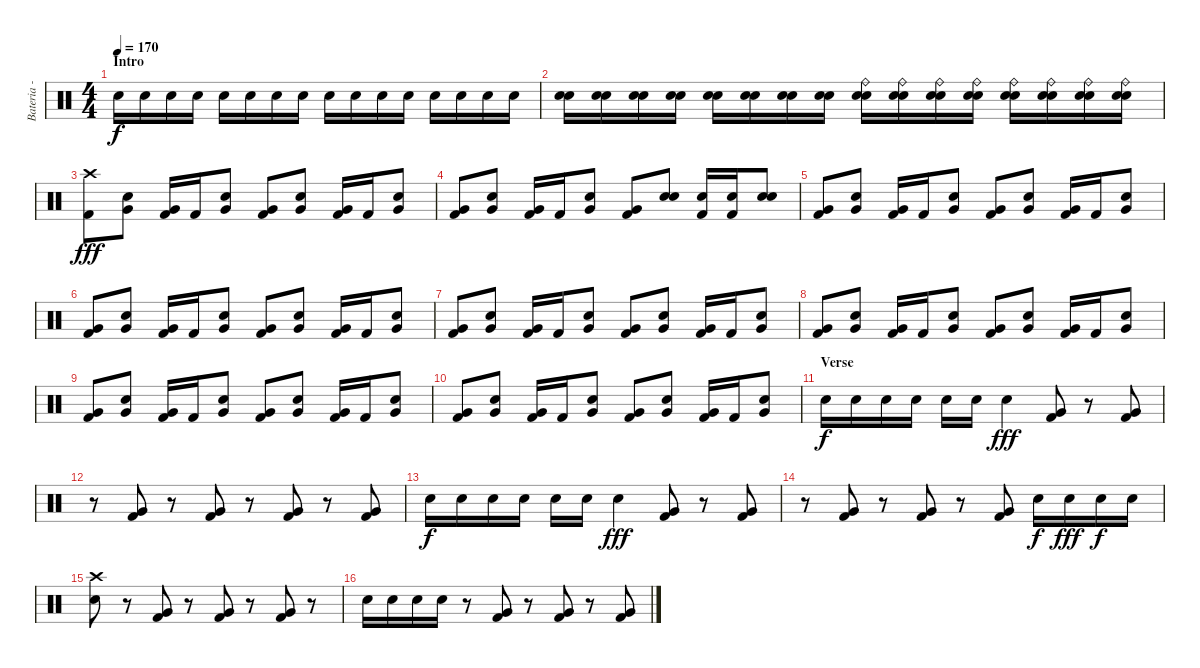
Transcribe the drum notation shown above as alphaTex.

\track ("Bateria - Larzon" "Bateria - ") {instrument percussion}
\staff {score}
\articulation defaults
\ts (4 4)
\section ("" "Intro")
\tempo 170
\clef neutral
\ks c "Electric Snare (hit)".16{dy f} "Electric Snare (hit)".16 "Electric Snare (hit)".16 "Electric Snare (hit)".16 "Electric Snare (hit)".16 "Electric Snare (hit)".16 "Electric Snare (hit)".16 "Electric Snare (hit)".16 "Electric Snare (hit)".16 "Electric Snare (hit)".16 "Electric Snare (hit)".16 "Electric Snare (hit)".16 "Electric Snare (hit)".16 "Electric Snare (hit)".16 "Electric Snare (hit)".16 "Electric Snare (hit)".16
|
("Electric Snare (hit)" "Snare (hit) 2").16 ("Electric Snare (hit)" "Snare (hit) 2").16 ("Electric Snare (hit)" "Snare (hit) 2").16 ("Electric Snare (hit)" "Snare (hit) 2").16 ("Electric Snare (hit)" "Snare (hit) 2").16 ("Electric Snare (hit)" "Snare (hit) 2").16 ("Electric Snare (hit)" "Snare (hit) 2").16 ("Electric Snare (hit)" "Snare (hit) 2").16 ("Electric Snare (hit)" "Ride (bell)" "Snare (hit) 2").16 ("Electric Snare (hit)" "Ride (bell)" "Snare (hit) 2").16 ("Electric Snare (hit)" "Ride (bell)" "Snare (hit) 2").16 ("Electric Snare (hit)" "Ride (bell)" "Snare (hit) 2").16 ("Electric Snare (hit)" "Ride (bell)" "Snare (hit) 2").16 ("Electric Snare (hit)" "Ride (bell)" "Snare (hit) 2").16 ("Electric Snare (hit)" "Ride (bell)" "Snare (hit) 2").16 ("Electric Snare (hit)" "Ride (bell)" "Snare (hit) 2").16 |
("Kick (hit) 2" "Crash high (hit)").8{dy fff} ("Electric Snare (hit)" "Very Low Tom (hit)").8 ("Kick (hit) 2" "Very Low Tom (hit)").16 "Kick (hit) 2".16 ("Electric Snare (hit)" "Very Low Tom (hit)").8 ("Kick (hit) 2" "Very Low Tom (hit)").8 ("Electric Snare (hit)" "Very Low Tom (hit)").8 ("Kick (hit) 2" "Very Low Tom (hit)").16 "Kick (hit) 2".16 ("Electric Snare (hit)" "Very Low Tom (hit)").8 |
("Kick (hit) 2" "Very Low Tom (hit)").8 ("Electric Snare (hit)" "Very Low Tom (hit)").8 ("Kick (hit) 2" "Very Low Tom (hit)").16 "Kick (hit) 2".16 ("Electric Snare (hit)" "Very Low Tom (hit)").8 ("Kick (hit) 2" "Very Low Tom (hit)").8 ("Electric Snare (hit)" "Electric Snare (hit)").8 ("Kick (hit) 2" "Electric Snare (hit)").16 ("Kick (hit) 2" "Electric Snare (hit)").16 ("Electric Snare (hit)" "Electric Snare (hit)").8 |
("Kick (hit) 2" "Very Low Tom (hit)").8 ("Electric Snare (hit)" "Very Low Tom (hit)").8 ("Kick (hit) 2" "Very Low Tom (hit)").16 "Kick (hit) 2".16 ("Electric Snare (hit)" "Very Low Tom (hit)").8 ("Kick (hit) 2" "Very Low Tom (hit)").8 ("Electric Snare (hit)" "Very Low Tom (hit)").8 ("Kick (hit) 2" "Very Low Tom (hit)").16 "Kick (hit) 2".16 ("Electric Snare (hit)" "Very Low Tom (hit)").8 |
("Kick (hit) 2" "Very Low Tom (hit)").8 ("Electric Snare (hit)" "Very Low Tom (hit)").8 ("Kick (hit) 2" "Very Low Tom (hit)").16 "Kick (hit) 2".16 ("Electric Snare (hit)" "Very Low Tom (hit)").8 ("Kick (hit) 2" "Very Low Tom (hit)").8 ("Electric Snare (hit)" "Very Low Tom (hit)").8 ("Kick (hit) 2" "Very Low Tom (hit)").16 "Kick (hit) 2".16 ("Electric Snare (hit)" "Very Low Tom (hit)").8 |
("Kick (hit) 2" "Very Low Tom (hit)").8 ("Electric Snare (hit)" "Very Low Tom (hit)").8 ("Kick (hit) 2" "Very Low Tom (hit)").16 "Kick (hit) 2".16 ("Electric Snare (hit)" "Very Low Tom (hit)").8 ("Kick (hit) 2" "Very Low Tom (hit)").8 ("Electric Snare (hit)" "Very Low Tom (hit)").8 ("Kick (hit) 2" "Very Low Tom (hit)").16 "Kick (hit) 2".16 ("Electric Snare (hit)" "Very Low Tom (hit)").8 |
("Kick (hit) 2" "Very Low Tom (hit)").8 ("Electric Snare (hit)" "Very Low Tom (hit)").8 ("Kick (hit) 2" "Very Low Tom (hit)").16 "Kick (hit) 2".16 ("Electric Snare (hit)" "Very Low Tom (hit)").8 ("Kick (hit) 2" "Very Low Tom (hit)").8 ("Electric Snare (hit)" "Very Low Tom (hit)").8 ("Kick (hit) 2" "Very Low Tom (hit)").16 "Kick (hit) 2".16 ("Electric Snare (hit)" "Very Low Tom (hit)").8 |
("Kick (hit) 2" "Very Low Tom (hit)").8 ("Electric Snare (hit)" "Very Low Tom (hit)").8 ("Kick (hit) 2" "Very Low Tom (hit)").16 "Kick (hit) 2".16 ("Electric Snare (hit)" "Very Low Tom (hit)").8 ("Kick (hit) 2" "Very Low Tom (hit)").8 ("Electric Snare (hit)" "Very Low Tom (hit)").8 ("Kick (hit) 2" "Very Low Tom (hit)").16 "Kick (hit) 2".16 ("Electric Snare (hit)" "Very Low Tom (hit)").8 |
("Kick (hit) 2" "Very Low Tom (hit)").8 ("Electric Snare (hit)" "Very Low Tom (hit)").8 ("Kick (hit) 2" "Very Low Tom (hit)").16 "Kick (hit) 2".16 ("Electric Snare (hit)" "Very Low Tom (hit)").8 ("Kick (hit) 2" "Very Low Tom (hit)").8 ("Electric Snare (hit)" "Very Low Tom (hit)").8 ("Kick (hit) 2" "Very Low Tom (hit)").16 "Kick (hit) 2".16 ("Electric Snare (hit)" "Very Low Tom (hit)").8 |
\section ("" "Verse")
"Electric Snare (hit)".16{dy f} "Electric Snare (hit)".16 "Electric Snare (hit)".16 "Electric Snare (hit)".16 "Electric Snare (hit)".16 "Electric Snare (hit)".16 "Electric Snare (hit)".4{dy fff} ("Very Low Tom (hit)" "Kick (hit) 2").8 r.8 ("Very Low Tom (hit)" "Kick (hit) 2").8 |
r.8 ("Very Low Tom (hit)" "Kick (hit) 2").8 r.8 ("Very Low Tom (hit)" "Kick (hit) 2").8 r.8 ("Very Low Tom (hit)" "Kick (hit) 2").8 r.8 ("Very Low Tom (hit)" "Kick (hit) 2").8 |
"Electric Snare (hit)".16{dy f} "Electric Snare (hit)".16 "Electric Snare (hit)".16 "Electric Snare (hit)".16 "Electric Snare (hit)".16 "Electric Snare (hit)".16 "Electric Snare (hit)".4{dy fff} ("Very Low Tom (hit)" "Kick (hit) 2").8 r.8 ("Very Low Tom (hit)" "Kick (hit) 2").8 |
r.8 ("Very Low Tom (hit)" "Kick (hit) 2").8 r.8 ("Very Low Tom (hit)" "Kick (hit) 2").8 r.8 ("Very Low Tom (hit)" "Kick (hit) 2").8 "Electric Snare (hit)".16{dy f} "Electric Snare (hit)".16{dy fff} "Electric Snare (hit)".16{dy f} "Electric Snare (hit)".16 |
("Crash high (hit)" "Snare (hit) 2").8 r.8 ("Very Low Tom (hit)" "Kick (hit) 2").8 r.8 ("Very Low Tom (hit)" "Kick (hit) 2").8 r.8 ("Very Low Tom (hit)" "Kick (hit) 2").8 r.8 |
"Electric Snare (hit)".16 "Electric Snare (hit)".16 "Electric Snare (hit)".16 "Electric Snare (hit)".16 r.8 ("Very Low Tom (hit)" "Kick (hit) 2").8 r.8 ("Very Low Tom (hit)" "Kick (hit) 2").8 r.8 ("Very Low Tom (hit)" "Kick (hit) 2").8
